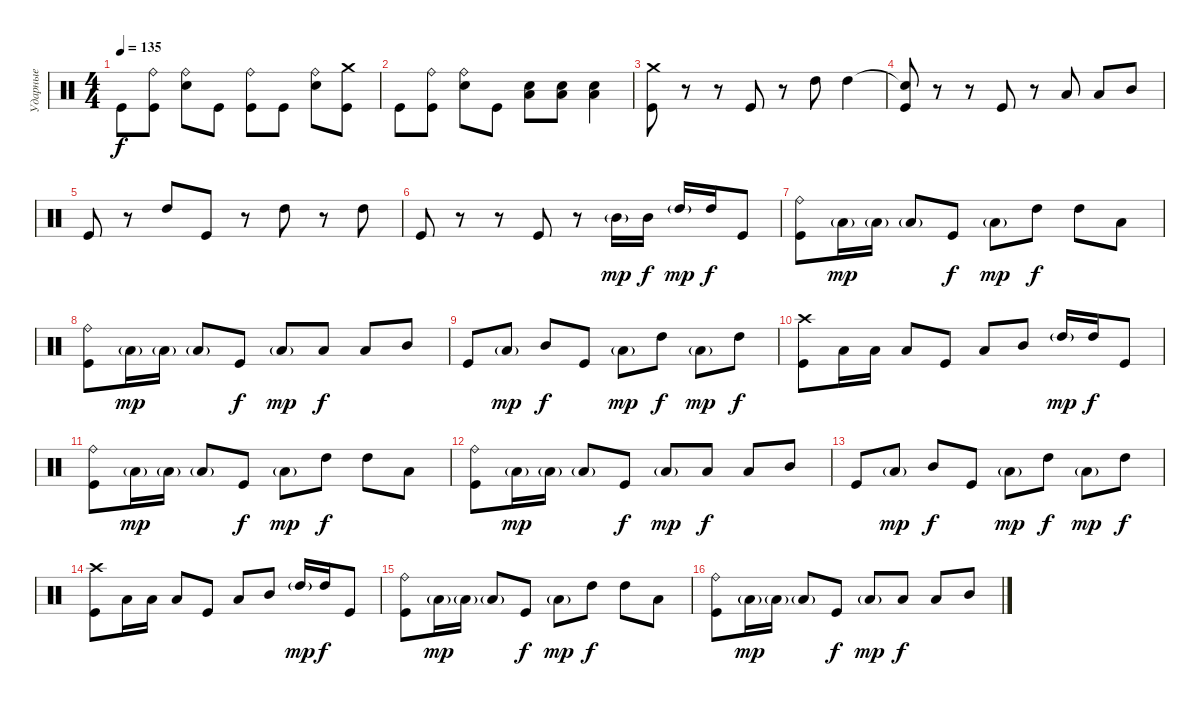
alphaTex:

\track ("Ударные" "Ударные") {instrument percussion}
\staff {score}
\articulation defaults
\ts (4 4)
\tempo 135
\clef neutral
\ks c "Kick (hit)".8{dy f}
("Ride (bell)" "Kick (hit)").8 ("Ride (bell)" "Electric Snare (hit)").8 "Kick (hit)".8 ("Ride (bell)" "Kick (hit)").8 "Kick (hit)".8 ("Ride (bell)" "Electric Snare (hit)").8 ("Crash medium (hit)" "Kick (hit)").8 |
"Kick (hit)".8 ("Ride (bell)" "Kick (hit)").8 ("Ride (bell)" "Electric Snare (hit)").8 "Kick (hit)".8 ("Electric Snare (hit)" "Low Tom (hit)").8 ("Electric Snare (hit)" "Low Tom (hit)").8 ("Electric Snare (hit)" "Low Tom (hit)").4 |
("Crash medium (hit)" "Kick (hit)").8 r.8 r.8 "Kick (hit)".8 r.8 "High Tom (hit)".8 "High Tom (hit)".4 |
("Snare (hit)"{t} "Kick (hit)").8 r.8 r.8 "Kick (hit)".8 r.8 "Low Tom (hit)".8 "Low Tom (hit)".8 "Mid Tom (hit)".8 |
"Kick (hit)".8 r.8 "High Tom (hit)".8 "Kick (hit)".8 r.8 "High Tom (hit)".8 r.8 "High Tom (hit)".8 |
"Kick (hit)".8 r.8 r.8 "Kick (hit)".8 r.8 "Mid Tom (hit)"{g}.16{dy mp} "Mid Tom (hit)".16{dy f} "High Tom (hit)"{g}.16{dy mp} "High Tom (hit)".16{dy f} "Kick (hit)".8 |
("Ride (bell)" "Kick (hit)").8 "Low Tom (hit)"{g}.16{dy mp} "Low Tom (hit)"{g}.16 "Low Tom (hit)"{g}.8 "Kick (hit)".8{dy f} "Low Tom (hit)"{g}.8{dy mp} "High Tom (hit)".8{dy f} "High Tom (hit)".8 "Low Tom (hit)".8 |
("Ride (bell)" "Kick (hit)").8 "Low Tom (hit)"{g}.16{dy mp} "Low Tom (hit)"{g}.16 "Low Tom (hit)"{g}.8 "Kick (hit)".8{dy f} "Low Tom (hit)"{g}.8{dy mp} "Low Tom (hit)".8{dy f} "Low Tom (hit)".8 "Mid Tom (hit)".8 |
"Kick (hit)".8 "Low Tom (hit)"{g}.8{dy mp} "Mid Tom (hit)".8{dy f} "Kick (hit)".8 "Low Tom (hit)"{g}.8{dy mp} "High Tom (hit)".8{dy f} "Low Tom (hit)"{g}.8{dy mp} "High Tom (hit)".8{dy f} |
("Crash high (hit)" "Kick (hit)").8 "Low Tom (hit)".16 "Low Tom (hit)".16 "Low Tom (hit)".8 "Kick (hit)".8 "Low Tom (hit)".8 "Mid Tom (hit)".8 "High Tom (hit)"{g}.16{dy mp} "High Tom (hit)".16{dy f} "Kick (hit)".8 |
("Ride (bell)" "Kick (hit)").8 "Low Tom (hit)"{g}.16{dy mp} "Low Tom (hit)"{g}.16 "Low Tom (hit)"{g}.8 "Kick (hit)".8{dy f} "Low Tom (hit)"{g}.8{dy mp} "High Tom (hit)".8{dy f} "High Tom (hit)".8 "Low Tom (hit)".8 |
("Ride (bell)" "Kick (hit)").8 "Low Tom (hit)"{g}.16{dy mp} "Low Tom (hit)"{g}.16 "Low Tom (hit)"{g}.8 "Kick (hit)".8{dy f} "Low Tom (hit)"{g}.8{dy mp} "Low Tom (hit)".8{dy f} "Low Tom (hit)".8 "Mid Tom (hit)".8 |
"Kick (hit)".8 "Low Tom (hit)"{g}.8{dy mp} "Mid Tom (hit)".8{dy f} "Kick (hit)".8 "Low Tom (hit)"{g}.8{dy mp} "High Tom (hit)".8{dy f} "Low Tom (hit)"{g}.8{dy mp} "High Tom (hit)".8{dy f} |
("Crash high (hit)" "Kick (hit)").8 "Low Tom (hit)".16 "Low Tom (hit)".16 "Low Tom (hit)".8 "Kick (hit)".8 "Low Tom (hit)".8 "Mid Tom (hit)".8 "High Tom (hit)"{g}.16{dy mp} "High Tom (hit)".16{dy f} "Kick (hit)".8 |
("Ride (bell)" "Kick (hit)").8 "Low Tom (hit)"{g}.16{dy mp} "Low Tom (hit)"{g}.16 "Low Tom (hit)"{g}.8 "Kick (hit)".8{dy f} "Low Tom (hit)"{g}.8{dy mp} "High Tom (hit)".8{dy f} "High Tom (hit)".8 "Low Tom (hit)".8 |
("Ride (bell)" "Kick (hit)").8 "Low Tom (hit)"{g}.16{dy mp} "Low Tom (hit)"{g}.16 "Low Tom (hit)"{g}.8 "Kick (hit)".8{dy f} "Low Tom (hit)"{g}.8{dy mp} "Low Tom (hit)".8{dy f} "Low Tom (hit)".8 "Mid Tom (hit)".8
